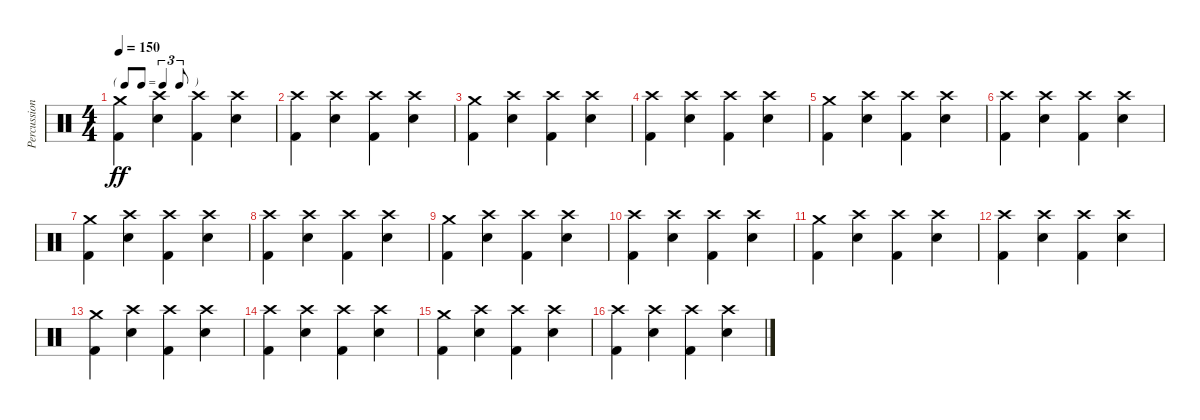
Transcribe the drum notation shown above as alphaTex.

\track ("Percussion" "Percussion") {instrument percussion}
\staff {score}
\articulation defaults
\ts (4 4)
\tf triplet8th
\tempo 150
\clef neutral
\ks c
("Crash medium (hit)" "Kick (hit) 2").4{dy ff} ("Crash high (hit)" "Electric Snare (hit)").4 ("Crash high (hit)" "Kick (hit) 2").4 ("Crash high (hit)" "Electric Snare (hit)").4 |
("Crash high (hit)" "Kick (hit) 2").4 ("Crash high (hit)" "Electric Snare (hit)").4 ("Crash high (hit)" "Kick (hit) 2").4 ("Crash high (hit)" "Electric Snare (hit)").4 |
("Crash medium (hit)" "Kick (hit) 2").4 ("Crash high (hit)" "Electric Snare (hit)").4 ("Crash high (hit)" "Kick (hit) 2").4 ("Crash high (hit)" "Electric Snare (hit)").4 |
("Crash high (hit)" "Kick (hit) 2").4 ("Crash high (hit)" "Electric Snare (hit)").4 ("Crash high (hit)" "Kick (hit) 2").4 ("Crash high (hit)" "Electric Snare (hit)").4 |
("Crash medium (hit)" "Kick (hit) 2").4 ("Crash high (hit)" "Electric Snare (hit)").4 ("Crash high (hit)" "Kick (hit) 2").4 ("Crash high (hit)" "Electric Snare (hit)").4 |
("Crash high (hit)" "Kick (hit) 2").4 ("Crash high (hit)" "Electric Snare (hit)").4 ("Crash high (hit)" "Kick (hit) 2").4 ("Crash high (hit)" "Electric Snare (hit)").4 |
("Crash medium (hit)" "Kick (hit) 2").4 ("Crash high (hit)" "Electric Snare (hit)").4 ("Crash high (hit)" "Kick (hit) 2").4 ("Crash high (hit)" "Electric Snare (hit)").4 |
("Crash high (hit)" "Kick (hit) 2").4 ("Crash high (hit)" "Electric Snare (hit)").4 ("Crash high (hit)" "Kick (hit) 2").4 ("Crash high (hit)" "Electric Snare (hit)").4 |
("Crash medium (hit)" "Kick (hit) 2").4 ("Crash high (hit)" "Electric Snare (hit)").4 ("Crash high (hit)" "Kick (hit) 2").4 ("Crash high (hit)" "Electric Snare (hit)").4 |
("Crash high (hit)" "Kick (hit) 2").4 ("Crash high (hit)" "Electric Snare (hit)").4 ("Crash high (hit)" "Kick (hit) 2").4 ("Crash high (hit)" "Electric Snare (hit)").4 |
("Crash medium (hit)" "Kick (hit) 2").4 ("Crash high (hit)" "Electric Snare (hit)").4 ("Crash high (hit)" "Kick (hit) 2").4 ("Crash high (hit)" "Electric Snare (hit)").4 |
("Crash high (hit)" "Kick (hit) 2").4 ("Crash high (hit)" "Electric Snare (hit)").4 ("Crash high (hit)" "Kick (hit) 2").4 ("Crash high (hit)" "Electric Snare (hit)").4 |
("Crash medium (hit)" "Kick (hit) 2").4 ("Crash high (hit)" "Electric Snare (hit)").4 ("Crash high (hit)" "Kick (hit) 2").4 ("Crash high (hit)" "Electric Snare (hit)").4 |
("Crash high (hit)" "Kick (hit) 2").4 ("Crash high (hit)" "Electric Snare (hit)").4 ("Crash high (hit)" "Kick (hit) 2").4 ("Crash high (hit)" "Electric Snare (hit)").4 |
("Crash medium (hit)" "Kick (hit) 2").4 ("Crash high (hit)" "Electric Snare (hit)").4 ("Crash high (hit)" "Kick (hit) 2").4 ("Crash high (hit)" "Electric Snare (hit)").4 |
("Crash high (hit)" "Kick (hit) 2").4 ("Crash high (hit)" "Electric Snare (hit)").4 ("Crash high (hit)" "Kick (hit) 2").4 ("Crash high (hit)" "Electric Snare (hit)").4
